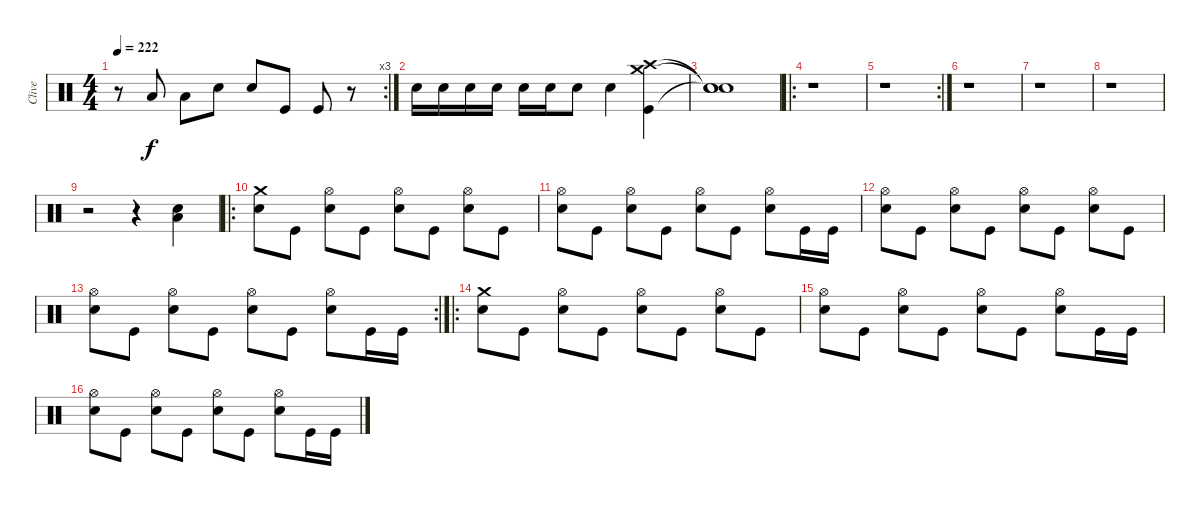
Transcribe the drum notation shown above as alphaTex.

\track ("Clive" "Clive") {instrument percussion}
\staff {score}
\articulation defaults
\rc 3
\ts (4 4)
\tempo 222
\clef neutral
\ks c
r.8{dy f} "Low Tom (hit)".8 "Low Tom (hit)".8 "Snare (hit) 2".8 "Snare (hit) 2".8 "Kick (hit)".8 "Kick (hit)".8 r.8 |
"Snare (hit) 2".16 "Snare (hit) 2".16 "Snare (hit) 2".16 "Snare (hit) 2".16 "Snare (hit) 2".16 "Snare (hit) 2".16 "Snare (hit) 2".8 "Snare (hit) 2".4 ("Crash medium (hit)" "Crash high (hit)" "Kick (hit)").4 |
("Snare (hit)"{t} "Snare (hit)"{t} "Snare (hit)"{t}).1 |
\ro
r.1 |
\rc 2
r.1 |
r.1 |
r.1 |
r.1 |
r.2 r.4 ("Snare (hit) 2" "Low Floor Tom (hit)").4 |
\ro
("Crash medium (hit)" "Snare (hit) 2").8 "Kick (hit)".8 ("Hi-Hat (open)" "Snare (hit) 2").8 "Kick (hit)".8 ("Hi-Hat (open)" "Snare (hit) 2").8 "Kick (hit)".8 ("Hi-Hat (open)" "Snare (hit) 2").8 "Kick (hit)".8 |
("Hi-Hat (open)" "Snare (hit) 2").8 "Kick (hit)".8 ("Hi-Hat (open)" "Snare (hit) 2").8 "Kick (hit)".8 ("Hi-Hat (open)" "Snare (hit) 2").8 "Kick (hit)".8 ("Hi-Hat (open)" "Snare (hit) 2").8 "Kick (hit)".16 "Kick (hit)".16 |
("Hi-Hat (open)" "Snare (hit) 2").8 "Kick (hit)".8 ("Hi-Hat (open)" "Snare (hit) 2").8 "Kick (hit)".8 ("Hi-Hat (open)" "Snare (hit) 2").8 "Kick (hit)".8 ("Hi-Hat (open)" "Snare (hit) 2").8 "Kick (hit)".8 |
\rc 2
("Hi-Hat (open)" "Snare (hit) 2").8 "Kick (hit)".8 ("Hi-Hat (open)" "Snare (hit) 2").8 "Kick (hit)".8 ("Hi-Hat (open)" "Snare (hit) 2").8 "Kick (hit)".8 ("Hi-Hat (open)" "Snare (hit) 2").8 "Kick (hit)".16 "Kick (hit)".16 |
\ro
("Crash medium (hit)" "Snare (hit) 2").8 "Kick (hit)".8 ("Hi-Hat (open)" "Snare (hit) 2").8 "Kick (hit)".8 ("Hi-Hat (open)" "Snare (hit) 2").8 "Kick (hit)".8 ("Hi-Hat (open)" "Snare (hit) 2").8 "Kick (hit)".8 |
("Hi-Hat (open)" "Snare (hit) 2").8 "Kick (hit)".8 ("Hi-Hat (open)" "Snare (hit) 2").8 "Kick (hit)".8 ("Hi-Hat (open)" "Snare (hit) 2").8 "Kick (hit)".8 ("Hi-Hat (open)" "Snare (hit) 2").8 "Kick (hit)".16 "Kick (hit)".16 |
("Hi-Hat (open)" "Snare (hit) 2").8 "Kick (hit)".8 ("Hi-Hat (open)" "Snare (hit) 2").8 "Kick (hit)".8 ("Hi-Hat (open)" "Snare (hit) 2").8 "Kick (hit)".8 ("Hi-Hat (open)" "Snare (hit) 2").8 "Kick (hit)".16 "Kick (hit)".16
